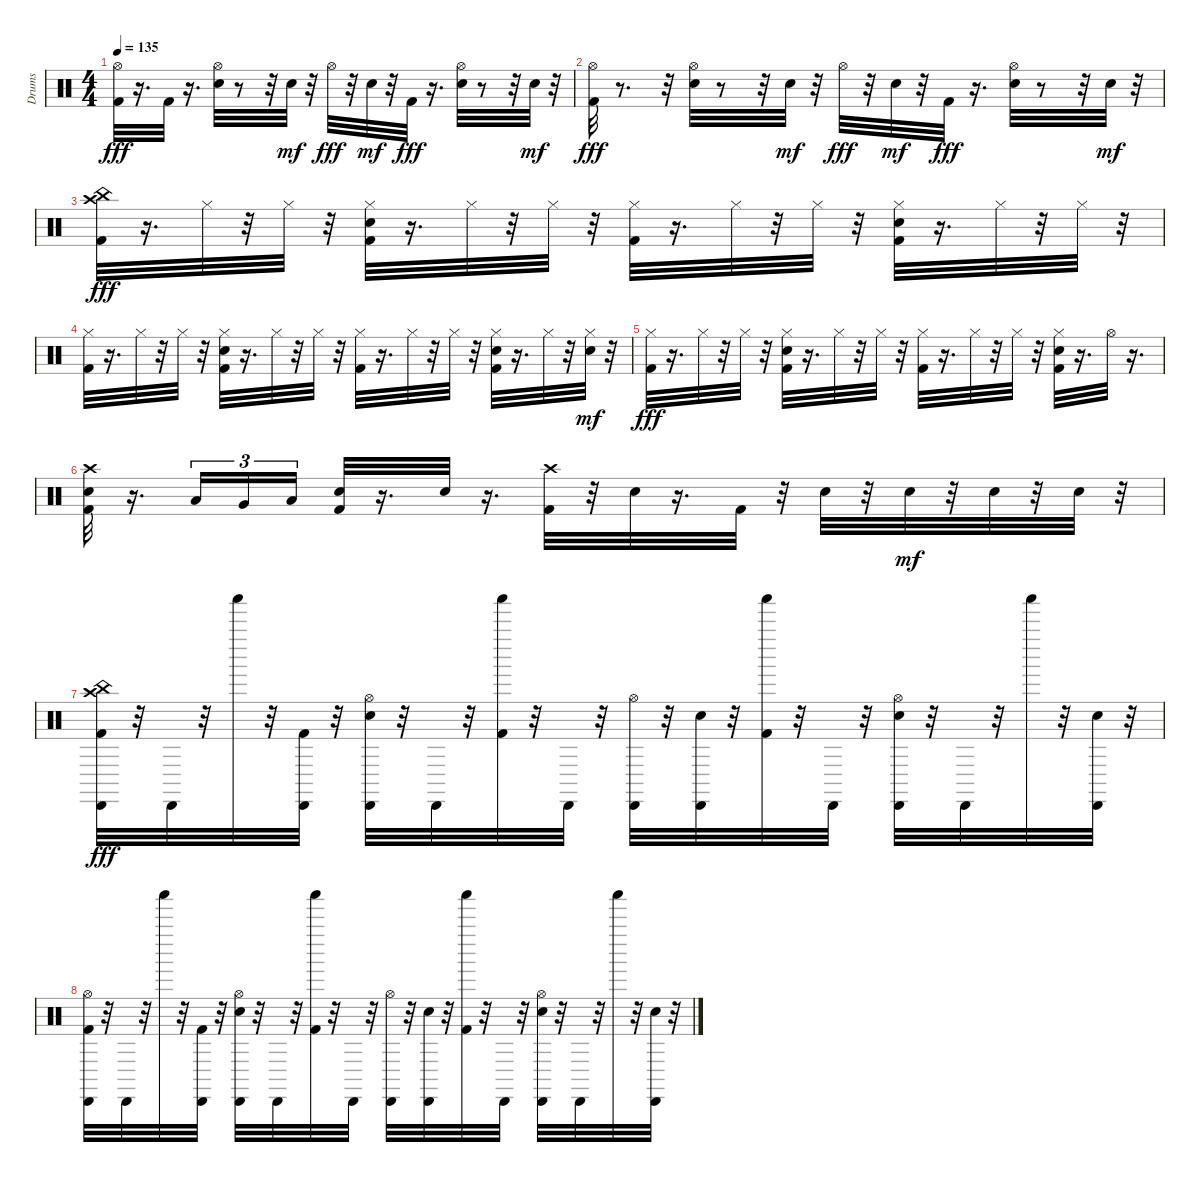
\track ("Drums" "Drums") {instrument percussion}
\staff {score}
\articulation defaults
\ts (4 4)
\tempo 135
\clef neutral
\ks c
("Kick (hit) 2" "Hi-Hat (open)").32{dy fff} r.16{d} "Kick (hit) 2".32 r.16{d} ("Snare (hit) 2" "Hi-Hat (open)").32 r.8 r.32 "Snare (hit) 2".32{dy mf} r.32 "Hi-Hat (open)".32{dy fff} r.32 "Snare (hit) 2".32{dy mf} r.32 "Kick (hit) 2".32{dy fff} r.16{d} ("Snare (hit) 2" "Hi-Hat (open)").32 r.8 r.32 "Snare (hit) 2".32{dy mf} r.32 |
("Kick (hit) 2" "Hi-Hat (open)").32{dy fff} r.8{d} r.32 ("Snare (hit) 2" "Hi-Hat (open)").32 r.8 r.32 "Snare (hit) 2".32{dy mf} r.32 "Hi-Hat (open)".32{dy fff} r.32 "Snare (hit) 2".32{dy mf} r.32 "Kick (hit) 2".32{dy fff} r.16{d} ("Snare (hit) 2" "Hi-Hat (open)").32 r.8 r.32 "Snare (hit) 2".32{dy mf} r.32 |
("Kick (hit) 2" "Crash high (hit)" "China (hit)").32{dy fff} r.16{d} "Hi-Hat (closed)".32 r.32 "Hi-Hat (closed)".32 r.32 ("Kick (hit) 2" "Hi-Hat (closed)" "Snare (hit) 2").32 r.16{d} "Hi-Hat (closed)".32 r.32 "Hi-Hat (closed)".32 r.32 ("Kick (hit) 2" "Hi-Hat (closed)").32 r.16{d} "Hi-Hat (closed)".32 r.32 "Hi-Hat (closed)".32 r.32 ("Kick (hit) 2" "Hi-Hat (closed)" "Snare (hit) 2").32 r.16{d} "Hi-Hat (closed)".32 r.32 "Hi-Hat (closed)".32 r.32 |
("Kick (hit) 2" "Hi-Hat (closed)").32 r.16{d} "Hi-Hat (closed)".32 r.32 "Hi-Hat (closed)".32 r.32 ("Kick (hit) 2" "Hi-Hat (closed)" "Snare (hit) 2").32 r.16{d} "Hi-Hat (closed)".32 r.32 "Hi-Hat (closed)".32 r.32 ("Kick (hit) 2" "Hi-Hat (closed)").32 r.16{d} "Hi-Hat (closed)".32 r.32 "Hi-Hat (closed)".32 r.32 ("Kick (hit) 2" "Hi-Hat (closed)" "Snare (hit) 2").32 r.16{d} "Hi-Hat (closed)".32 r.32 ("Hi-Hat (closed)" "Snare (hit) 2").32{dy mf} r.32 |
("Kick (hit) 2" "Hi-Hat (closed)").32{dy fff} r.16{d} "Hi-Hat (closed)".32 r.32 "Hi-Hat (closed)".32 r.32 ("Kick (hit) 2" "Hi-Hat (closed)" "Snare (hit) 2").32 r.16{d} "Hi-Hat (closed)".32 r.32 "Hi-Hat (closed)".32 r.32 ("Kick (hit) 2" "Hi-Hat (closed)").32 r.16{d} "Hi-Hat (closed)".32 r.32 "Hi-Hat (closed)".32 r.32 ("Kick (hit) 2" "Hi-Hat (closed)" "Snare (hit) 2").32 r.16{d} "Hi-Hat (open)".32 r.16{d} |
("Kick (hit) 2" "Crash high (hit)" "Snare (hit) 2").32 r.16{d} "Low Tom (hit)".16{tu (3 2)} "Very Low Tom (hit)".16{tu (3 2)} "Low Floor Tom (hit)".16{tu (3 2)} ("Kick (hit) 2" "Snare (hit) 2").32 r.16{d} "Snare (hit) 2".32 r.16{d} ("Kick (hit) 2" "Crash high (hit)").32 r.32 "Snare (hit) 2".32 r.16{d} "Kick (hit) 2".32 r.32 "Snare (hit) 2".32 r.32 "Snare (hit) 2".32{dy mf} r.32 "Snare (hit) 2".32 r.32 "Snare (hit) 2".32 r.32 |
("Crash high (hit)" "Kick (hit) 2" "China (hit)" "Cabasa (hit)").32{dy fff} r.32 "Cabasa (hit)".32 r.32 "Shaker (hit)".32 r.32 ("Kick (hit) 2" "Cabasa (hit)").32 r.32 ("Snare (hit) 2" "Hi-Hat (open)" "Cabasa (hit)").32 r.32 "Cabasa (hit)".32 r.32 ("Kick (hit) 2" "Shaker (hit)").32 r.32 "Cabasa (hit)".32 r.32 ("Hi-Hat (open)" "Cabasa (hit)").32 r.32 ("Snare (hit) 2" "Cabasa (hit)").32 r.32 ("Kick (hit) 2" "Shaker (hit)").32 r.32 "Cabasa (hit)".32 r.32 ("Snare (hit) 2" "Hi-Hat (open)" "Cabasa (hit)").32 r.32 "Cabasa (hit)".32 r.32 "Shaker (hit)".32 r.32 ("Snare (hit) 2" "Cabasa (hit)").32 r.32 |
("Hi-Hat (open)" "Kick (hit) 2" "Cabasa (hit)").32 r.32 "Cabasa (hit)".32 r.32 "Shaker (hit)".32 r.32 ("Kick (hit) 2" "Cabasa (hit)").32 r.32 ("Snare (hit) 2" "Hi-Hat (open)" "Cabasa (hit)").32 r.32 "Cabasa (hit)".32 r.32 ("Kick (hit) 2" "Shaker (hit)").32 r.32 "Cabasa (hit)".32 r.32 ("Hi-Hat (open)" "Cabasa (hit)").32 r.32 ("Snare (hit) 2" "Cabasa (hit)").32 r.32 ("Kick (hit) 2" "Shaker (hit)").32 r.32 "Cabasa (hit)".32 r.32 ("Snare (hit) 2" "Hi-Hat (open)" "Cabasa (hit)").32 r.32 "Cabasa (hit)".32 r.32 "Shaker (hit)".32 r.32 ("Snare (hit) 2" "Cabasa (hit)").32 r.32
